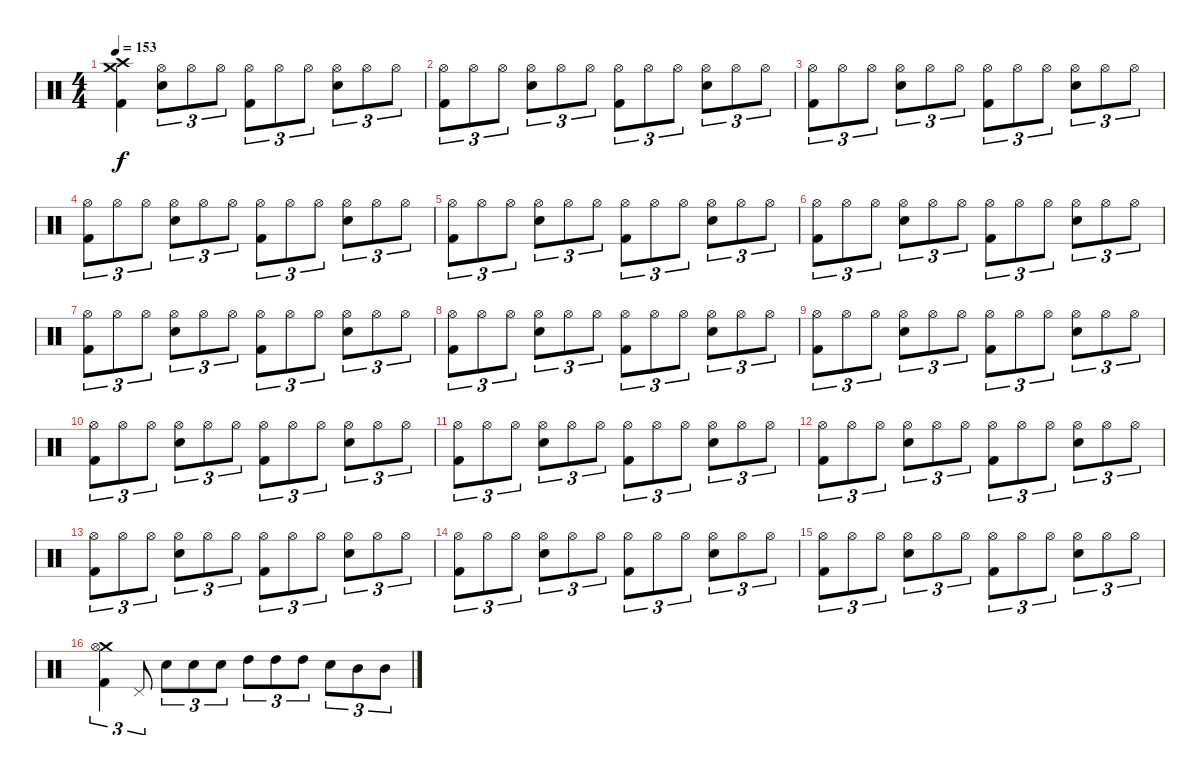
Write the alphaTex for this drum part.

\track "" {instrument percussion}
\staff {score}
\articulation defaults
\ts (4 4)
\tempo 153
\clef neutral
\ks c
("Crash high (hit)" "Crash medium (hit)" "Kick (hit) 2").4{dy f} ("Hi-Hat (open)" "Electric Snare (hit)").8{tu (3 2)} "Hi-Hat (open)".8{tu (3 2)} "Hi-Hat (open)".8{tu (3 2)} ("Hi-Hat (open)" "Kick (hit) 2").8{tu (3 2)} "Hi-Hat (open)".8{tu (3 2)} "Hi-Hat (open)".8{tu (3 2)} ("Hi-Hat (open)" "Electric Snare (hit)").8{tu (3 2)} "Hi-Hat (open)".8{tu (3 2)} "Hi-Hat (open)".8{tu (3 2)} |
("Hi-Hat (open)" "Kick (hit) 2").8{tu (3 2)} "Hi-Hat (open)".8{tu (3 2)} "Hi-Hat (open)".8{tu (3 2)} ("Hi-Hat (open)" "Electric Snare (hit)").8{tu (3 2)} "Hi-Hat (open)".8{tu (3 2)} "Hi-Hat (open)".8{tu (3 2)} ("Hi-Hat (open)" "Kick (hit) 2").8{tu (3 2)} "Hi-Hat (open)".8{tu (3 2)} "Hi-Hat (open)".8{tu (3 2)} ("Hi-Hat (open)" "Electric Snare (hit)").8{tu (3 2)} "Hi-Hat (open)".8{tu (3 2)} "Hi-Hat (open)".8{tu (3 2)} |
("Hi-Hat (open)" "Kick (hit) 2").8{tu (3 2)} "Hi-Hat (open)".8{tu (3 2)} "Hi-Hat (open)".8{tu (3 2)} ("Hi-Hat (open)" "Electric Snare (hit)").8{tu (3 2)} "Hi-Hat (open)".8{tu (3 2)} "Hi-Hat (open)".8{tu (3 2)} ("Hi-Hat (open)" "Kick (hit) 2").8{tu (3 2)} "Hi-Hat (open)".8{tu (3 2)} "Hi-Hat (open)".8{tu (3 2)} ("Hi-Hat (open)" "Electric Snare (hit)").8{tu (3 2)} "Hi-Hat (open)".8{tu (3 2)} "Hi-Hat (open)".8{tu (3 2)} |
("Hi-Hat (open)" "Kick (hit) 2").8{tu (3 2)} "Hi-Hat (open)".8{tu (3 2)} "Hi-Hat (open)".8{tu (3 2)} ("Hi-Hat (open)" "Electric Snare (hit)").8{tu (3 2)} "Hi-Hat (open)".8{tu (3 2)} "Hi-Hat (open)".8{tu (3 2)} ("Hi-Hat (open)" "Kick (hit) 2").8{tu (3 2)} "Hi-Hat (open)".8{tu (3 2)} "Hi-Hat (open)".8{tu (3 2)} ("Hi-Hat (open)" "Electric Snare (hit)").8{tu (3 2)} "Hi-Hat (open)".8{tu (3 2)} "Hi-Hat (open)".8{tu (3 2)} |
("Hi-Hat (open)" "Kick (hit) 2").8{tu (3 2)} "Hi-Hat (open)".8{tu (3 2)} "Hi-Hat (open)".8{tu (3 2)} ("Hi-Hat (open)" "Electric Snare (hit)").8{tu (3 2)} "Hi-Hat (open)".8{tu (3 2)} "Hi-Hat (open)".8{tu (3 2)} ("Hi-Hat (open)" "Kick (hit) 2").8{tu (3 2)} "Hi-Hat (open)".8{tu (3 2)} "Hi-Hat (open)".8{tu (3 2)} ("Hi-Hat (open)" "Electric Snare (hit)").8{tu (3 2)} "Hi-Hat (open)".8{tu (3 2)} "Hi-Hat (open)".8{tu (3 2)} |
("Hi-Hat (open)" "Kick (hit) 2").8{tu (3 2)} "Hi-Hat (open)".8{tu (3 2)} "Hi-Hat (open)".8{tu (3 2)} ("Hi-Hat (open)" "Electric Snare (hit)").8{tu (3 2)} "Hi-Hat (open)".8{tu (3 2)} "Hi-Hat (open)".8{tu (3 2)} ("Hi-Hat (open)" "Kick (hit) 2").8{tu (3 2)} "Hi-Hat (open)".8{tu (3 2)} "Hi-Hat (open)".8{tu (3 2)} ("Hi-Hat (open)" "Electric Snare (hit)").8{tu (3 2)} "Hi-Hat (open)".8{tu (3 2)} "Hi-Hat (open)".8{tu (3 2)} |
("Hi-Hat (open)" "Kick (hit) 2").8{tu (3 2)} "Hi-Hat (open)".8{tu (3 2)} "Hi-Hat (open)".8{tu (3 2)} ("Hi-Hat (open)" "Electric Snare (hit)").8{tu (3 2)} "Hi-Hat (open)".8{tu (3 2)} "Hi-Hat (open)".8{tu (3 2)} ("Hi-Hat (open)" "Kick (hit) 2").8{tu (3 2)} "Hi-Hat (open)".8{tu (3 2)} "Hi-Hat (open)".8{tu (3 2)} ("Hi-Hat (open)" "Electric Snare (hit)").8{tu (3 2)} "Hi-Hat (open)".8{tu (3 2)} "Hi-Hat (open)".8{tu (3 2)} |
("Hi-Hat (open)" "Kick (hit) 2").8{tu (3 2)} "Hi-Hat (open)".8{tu (3 2)} "Hi-Hat (open)".8{tu (3 2)} ("Hi-Hat (open)" "Electric Snare (hit)").8{tu (3 2)} "Hi-Hat (open)".8{tu (3 2)} "Hi-Hat (open)".8{tu (3 2)} ("Hi-Hat (open)" "Kick (hit) 2").8{tu (3 2)} "Hi-Hat (open)".8{tu (3 2)} "Hi-Hat (open)".8{tu (3 2)} ("Hi-Hat (open)" "Electric Snare (hit)").8{tu (3 2)} "Hi-Hat (open)".8{tu (3 2)} "Hi-Hat (open)".8{tu (3 2)} |
("Hi-Hat (open)" "Kick (hit) 2").8{tu (3 2)} "Hi-Hat (open)".8{tu (3 2)} "Hi-Hat (open)".8{tu (3 2)} ("Hi-Hat (open)" "Electric Snare (hit)").8{tu (3 2)} "Hi-Hat (open)".8{tu (3 2)} "Hi-Hat (open)".8{tu (3 2)} ("Hi-Hat (open)" "Kick (hit) 2").8{tu (3 2)} "Hi-Hat (open)".8{tu (3 2)} "Hi-Hat (open)".8{tu (3 2)} ("Hi-Hat (open)" "Electric Snare (hit)").8{tu (3 2)} "Hi-Hat (open)".8{tu (3 2)} "Hi-Hat (open)".8{tu (3 2)} |
("Hi-Hat (open)" "Kick (hit) 2").8{tu (3 2)} "Hi-Hat (open)".8{tu (3 2)} "Hi-Hat (open)".8{tu (3 2)} ("Hi-Hat (open)" "Electric Snare (hit)").8{tu (3 2)} "Hi-Hat (open)".8{tu (3 2)} "Hi-Hat (open)".8{tu (3 2)} ("Hi-Hat (open)" "Kick (hit) 2").8{tu (3 2)} "Hi-Hat (open)".8{tu (3 2)} "Hi-Hat (open)".8{tu (3 2)} ("Hi-Hat (open)" "Electric Snare (hit)").8{tu (3 2)} "Hi-Hat (open)".8{tu (3 2)} "Hi-Hat (open)".8{tu (3 2)} |
("Hi-Hat (open)" "Kick (hit) 2").8{tu (3 2)} "Hi-Hat (open)".8{tu (3 2)} "Hi-Hat (open)".8{tu (3 2)} ("Hi-Hat (open)" "Electric Snare (hit)").8{tu (3 2)} "Hi-Hat (open)".8{tu (3 2)} "Hi-Hat (open)".8{tu (3 2)} ("Hi-Hat (open)" "Kick (hit) 2").8{tu (3 2)} "Hi-Hat (open)".8{tu (3 2)} "Hi-Hat (open)".8{tu (3 2)} ("Hi-Hat (open)" "Electric Snare (hit)").8{tu (3 2)} "Hi-Hat (open)".8{tu (3 2)} "Hi-Hat (open)".8{tu (3 2)} |
("Hi-Hat (open)" "Kick (hit) 2").8{tu (3 2)} "Hi-Hat (open)".8{tu (3 2)} "Hi-Hat (open)".8{tu (3 2)} ("Hi-Hat (open)" "Electric Snare (hit)").8{tu (3 2)} "Hi-Hat (open)".8{tu (3 2)} "Hi-Hat (open)".8{tu (3 2)} ("Hi-Hat (open)" "Kick (hit) 2").8{tu (3 2)} "Hi-Hat (open)".8{tu (3 2)} "Hi-Hat (open)".8{tu (3 2)} ("Hi-Hat (open)" "Electric Snare (hit)").8{tu (3 2)} "Hi-Hat (open)".8{tu (3 2)} "Hi-Hat (open)".8{tu (3 2)} |
("Hi-Hat (open)" "Kick (hit) 2").8{tu (3 2)} "Hi-Hat (open)".8{tu (3 2)} "Hi-Hat (open)".8{tu (3 2)} ("Hi-Hat (open)" "Electric Snare (hit)").8{tu (3 2)} "Hi-Hat (open)".8{tu (3 2)} "Hi-Hat (open)".8{tu (3 2)} ("Hi-Hat (open)" "Kick (hit) 2").8{tu (3 2)} "Hi-Hat (open)".8{tu (3 2)} "Hi-Hat (open)".8{tu (3 2)} ("Hi-Hat (open)" "Electric Snare (hit)").8{tu (3 2)} "Hi-Hat (open)".8{tu (3 2)} "Hi-Hat (open)".8{tu (3 2)} |
("Hi-Hat (open)" "Kick (hit) 2").8{tu (3 2)} "Hi-Hat (open)".8{tu (3 2)} "Hi-Hat (open)".8{tu (3 2)} ("Hi-Hat (open)" "Electric Snare (hit)").8{tu (3 2)} "Hi-Hat (open)".8{tu (3 2)} "Hi-Hat (open)".8{tu (3 2)} ("Hi-Hat (open)" "Kick (hit) 2").8{tu (3 2)} "Hi-Hat (open)".8{tu (3 2)} "Hi-Hat (open)".8{tu (3 2)} ("Hi-Hat (open)" "Electric Snare (hit)").8{tu (3 2)} "Hi-Hat (open)".8{tu (3 2)} "Hi-Hat (open)".8{tu (3 2)} |
("Hi-Hat (open)" "Kick (hit) 2").8{tu (3 2)} "Hi-Hat (open)".8{tu (3 2)} "Hi-Hat (open)".8{tu (3 2)} ("Hi-Hat (open)" "Electric Snare (hit)").8{tu (3 2)} "Hi-Hat (open)".8{tu (3 2)} "Hi-Hat (open)".8{tu (3 2)} ("Hi-Hat (open)" "Kick (hit) 2").8{tu (3 2)} "Hi-Hat (open)".8{tu (3 2)} "Hi-Hat (open)".8{tu (3 2)} ("Hi-Hat (open)" "Electric Snare (hit)").8{tu (3 2)} "Hi-Hat (open)".8{tu (3 2)} "Hi-Hat (open)".8{tu (3 2)} |
("Crash medium (hit)" "Hi-Hat (open)" "Kick (hit) 2").4{tu (3 2)} "Pedal Hi-Hat (hit)".8{tu (3 2)} "Electric Snare (hit)".8{tu (3 2)} "Electric Snare (hit)".8{tu (3 2)} "Electric Snare (hit)".8{tu (3 2)} "High Tom (hit)".8{tu (3 2)} "High Tom (hit)".8{tu (3 2)} "High Tom (hit)".8{tu (3 2)} "Electric Snare (hit)".8{tu (3 2)} "Mid Tom (hit)".8{tu (3 2)} "Mid Tom (hit)".8{tu (3 2)}
